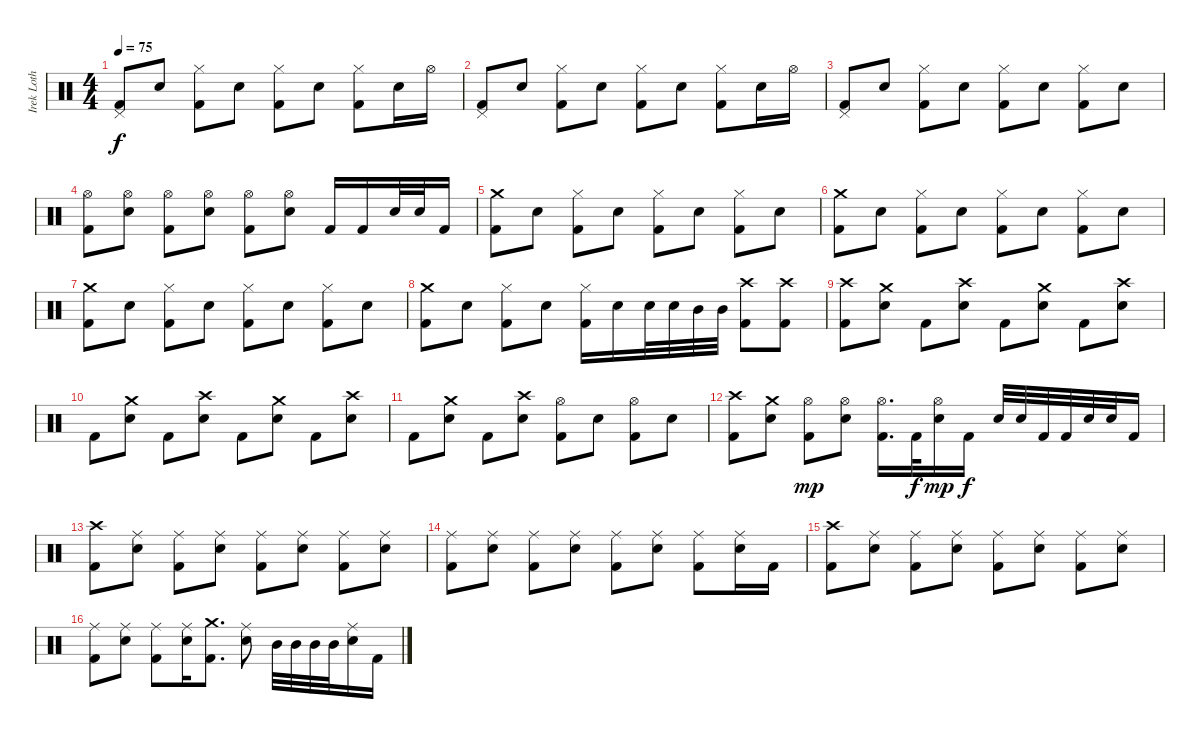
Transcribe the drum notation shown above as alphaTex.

\track ("Irek Loth" "Irek Loth") {instrument percussion}
\staff {score}
\articulation defaults
\ts (4 4)
\tempo 75
\clef neutral
\ks c
("Pedal Hi-Hat (hit)" "Kick (hit) 2").8{dy f} "Snare (hit) 2".8 ("Hi-Hat (closed)" "Kick (hit) 2").8 "Snare (hit) 2".8 ("Hi-Hat (closed)" "Kick (hit) 2").8 "Snare (hit) 2".8 ("Hi-Hat (closed)" "Kick (hit) 2").8 "Snare (hit) 2".16 "Hi-Hat (open)".16 |
("Pedal Hi-Hat (hit)" "Kick (hit) 2").8 "Snare (hit) 2".8 ("Hi-Hat (closed)" "Kick (hit) 2").8 "Snare (hit) 2".8 ("Hi-Hat (closed)" "Kick (hit) 2").8 "Snare (hit) 2".8 ("Hi-Hat (closed)" "Kick (hit) 2").8 "Snare (hit) 2".16 "Hi-Hat (open)".16 |
("Pedal Hi-Hat (hit)" "Kick (hit) 2").8 "Snare (hit) 2".8 ("Hi-Hat (closed)" "Kick (hit) 2").8 "Snare (hit) 2".8 ("Hi-Hat (closed)" "Kick (hit) 2").8 "Snare (hit) 2".8 ("Hi-Hat (closed)" "Kick (hit) 2").8 "Snare (hit) 2".8 |
("Hi-Hat (open)" "Kick (hit) 2").8 ("Snare (hit) 2" "Hi-Hat (open)").8 ("Hi-Hat (open)" "Kick (hit) 2").8 ("Snare (hit) 2" "Hi-Hat (open)").8 ("Hi-Hat (open)" "Kick (hit) 2").8 ("Snare (hit) 2" "Hi-Hat (open)").8 "Kick (hit) 2".16 "Kick (hit) 2".16 "Snare (hit) 2".32 "Snare (hit) 2".32 "Kick (hit) 2".16 |
("Crash medium (hit)" "Kick (hit) 2").8 "Snare (hit) 2".8 ("Hi-Hat (closed)" "Kick (hit) 2").8 "Snare (hit) 2".8 ("Hi-Hat (closed)" "Kick (hit) 2").8 "Snare (hit) 2".8 ("Hi-Hat (closed)" "Kick (hit) 2").8 "Snare (hit) 2".8 |
("Crash medium (hit)" "Kick (hit) 2").8 "Snare (hit) 2".8 ("Hi-Hat (closed)" "Kick (hit) 2").8 "Snare (hit) 2".8 ("Hi-Hat (closed)" "Kick (hit) 2").8 "Snare (hit) 2".8 ("Hi-Hat (closed)" "Kick (hit) 2").8 "Snare (hit) 2".8 |
("Crash medium (hit)" "Kick (hit) 2").8 "Snare (hit) 2".8 ("Hi-Hat (closed)" "Kick (hit) 2").8 "Snare (hit) 2".8 ("Hi-Hat (closed)" "Kick (hit) 2").8 "Snare (hit) 2".8 ("Hi-Hat (closed)" "Kick (hit) 2").8 "Snare (hit) 2".8 |
("Crash medium (hit)" "Kick (hit) 2").8 "Snare (hit) 2".8 ("Hi-Hat (closed)" "Kick (hit) 2").8 "Snare (hit) 2".8 ("Hi-Hat (closed)" "Kick (hit) 2").16 "Snare (hit) 2".16 "Snare (hit) 2".32 "Snare (hit) 2".32 "Mid Tom (hit)".32 "Mid Tom (hit)".32 ("Crash high (hit)" "Kick (hit) 2").8 ("Crash high (hit)" "Kick (hit) 2").8 |
("Crash high (hit)" "Kick (hit) 2").8 ("Snare (hit) 2" "Crash medium (hit)").8 "Kick (hit) 2".8 ("Snare (hit) 2" "Crash high (hit)").8 "Kick (hit) 2".8 ("Snare (hit) 2" "Crash medium (hit)").8 "Kick (hit) 2".8 ("Snare (hit) 2" "Crash high (hit)").8 |
"Kick (hit) 2".8 ("Snare (hit) 2" "Crash medium (hit)").8 "Kick (hit) 2".8 ("Snare (hit) 2" "Crash high (hit)").8 "Kick (hit) 2".8 ("Snare (hit) 2" "Crash medium (hit)").8 "Kick (hit) 2".8 ("Snare (hit) 2" "Crash high (hit)").8 |
"Kick (hit) 2".8 ("Snare (hit) 2" "Crash medium (hit)").8 "Kick (hit) 2".8 ("Snare (hit) 2" "Crash high (hit)").8 ("Hi-Hat (open)" "Kick (hit) 2").8 "Snare (hit) 2".8 ("Hi-Hat (open)" "Kick (hit) 2").8 "Snare (hit) 2".8 |
("Crash high (hit)" "Kick (hit) 2").8 ("Snare (hit) 2" "Crash medium (hit)").8 ("Hi-Hat (open)" "Kick (hit) 2").8{dy mp} ("Snare (hit) 2" "Hi-Hat (open)").8 ("Hi-Hat (open)" "Kick (hit) 2").16{d} "Kick (hit) 2".32{dy f} ("Snare (hit) 2" "Hi-Hat (open)").16{dy mp} "Kick (hit) 2".16{dy f} "Snare (hit) 2".32 "Snare (hit) 2".32 "Kick (hit) 2".32 "Kick (hit) 2".32 "Snare (hit) 2".32 "Snare (hit) 2".32 "Kick (hit) 2".16 |
("Crash high (hit)" "Kick (hit) 2").8 ("Snare (hit) 2" "Ride (middle)").8 ("Ride (middle)" "Kick (hit) 2").8 ("Snare (hit) 2" "Ride (middle)").8 ("Ride (middle)" "Kick (hit) 2").8 ("Snare (hit) 2" "Ride (middle)").8 ("Ride (middle)" "Kick (hit) 2").8 ("Snare (hit) 2" "Ride (middle)").8 |
("Ride (middle)" "Kick (hit) 2").8 ("Snare (hit) 2" "Ride (middle)").8 ("Ride (middle)" "Kick (hit) 2").8 ("Snare (hit) 2" "Ride (middle)").8 ("Ride (middle)" "Kick (hit) 2").8 ("Snare (hit) 2" "Ride (middle)").8 ("Ride (middle)" "Kick (hit) 2").8 ("Snare (hit) 2" "Ride (middle)").16 "Kick (hit) 2".16 |
("Crash high (hit)" "Kick (hit) 2").8 ("Snare (hit) 2" "Ride (middle)").8 ("Ride (middle)" "Kick (hit) 2").8 ("Snare (hit) 2" "Ride (middle)").8 ("Ride (middle)" "Kick (hit) 2").8 ("Snare (hit) 2" "Ride (middle)").8 ("Ride (middle)" "Kick (hit) 2").8 ("Snare (hit) 2" "Ride (middle)").8 |
("Ride (middle)" "Kick (hit) 2").8 ("Snare (hit) 2" "Ride (middle)").8 ("Ride (middle)" "Kick (hit) 2").8 ("Snare (hit) 2" "Ride (middle)").16 ("Crash medium (hit)" "Kick (hit) 2").8{d} ("Snare (hit) 2" "Ride (middle)").8 "Mid Tom (hit)".32 "Mid Tom (hit)".32 "Mid Tom (hit)".32 "Mid Tom (hit)".32 ("Snare (hit) 2" "Ride (middle)").16 "Kick (hit) 2".16
